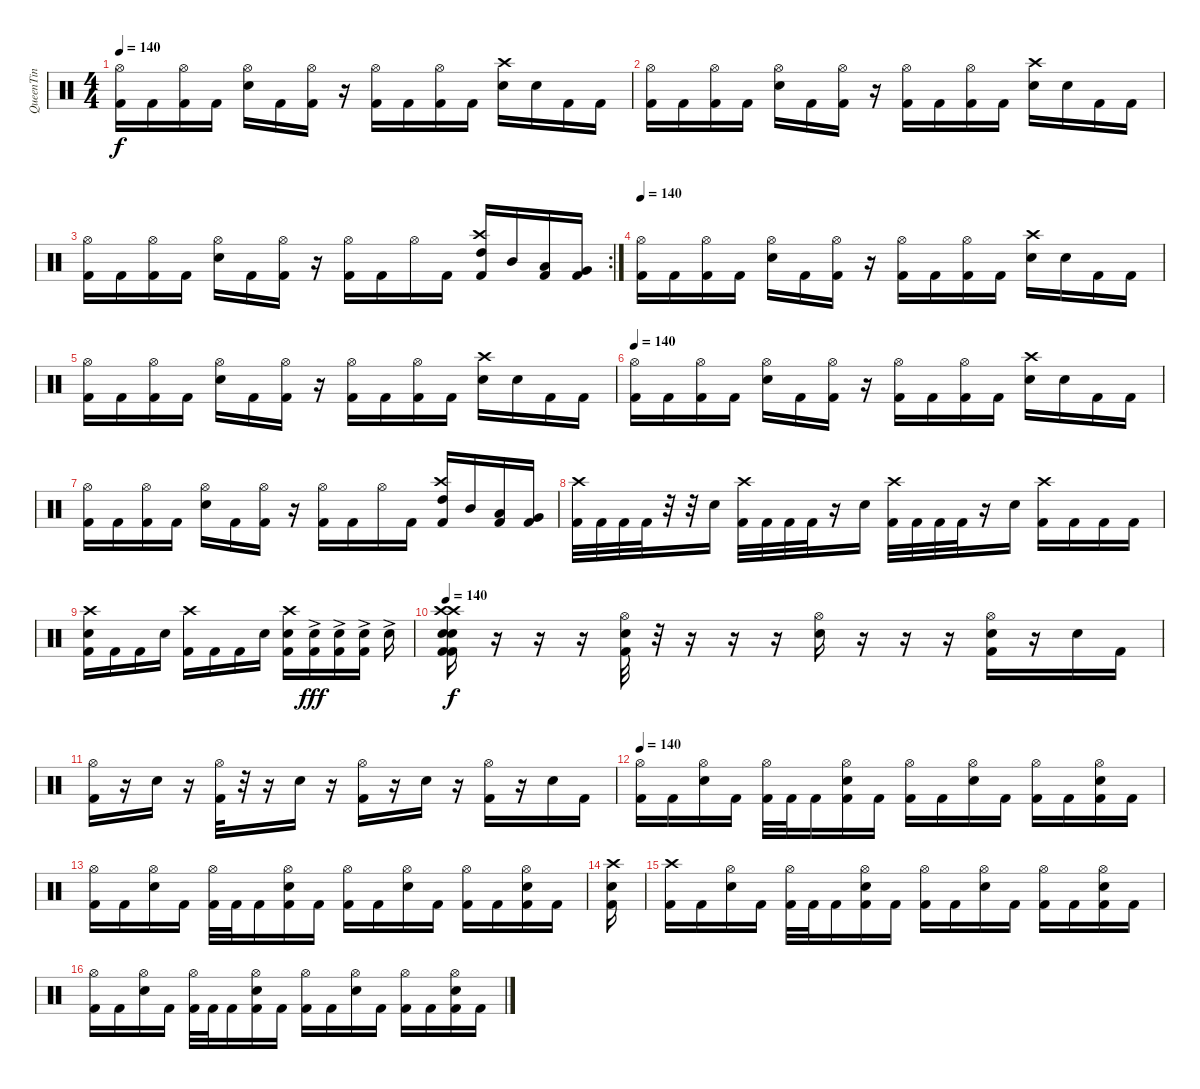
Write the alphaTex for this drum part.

\track ("QueenTin" "QueenTin") {instrument percussion}
\staff {score}
\articulation defaults
\ts (4 4)
\tempo 140
\clef neutral
\ks c
("Hi-Hat (open)" "Kick (hit) 2").16{dy f} "Kick (hit) 2".16 ("Hi-Hat (open)" "Kick (hit) 2").16 "Kick (hit) 2".16 ("Hi-Hat (open)" "Snare (hit) 2").16 "Kick (hit) 2".16 ("Hi-Hat (open)" "Kick (hit) 2").16 r.16 ("Hi-Hat (open)" "Kick (hit) 2").16 "Kick (hit) 2".16 ("Hi-Hat (open)" "Kick (hit) 2").16 "Kick (hit) 2".16 ("Crash high (hit)" "Snare (hit) 2").16 "Snare (hit) 2".16 "Kick (hit) 2".16 "Kick (hit) 2".16 |
("Hi-Hat (open)" "Kick (hit) 2").16 "Kick (hit) 2".16 ("Hi-Hat (open)" "Kick (hit) 2").16 "Kick (hit) 2".16 ("Hi-Hat (open)" "Snare (hit) 2").16 "Kick (hit) 2".16 ("Hi-Hat (open)" "Kick (hit) 2").16 r.16 ("Hi-Hat (open)" "Kick (hit) 2").16 "Kick (hit) 2".16 ("Hi-Hat (open)" "Kick (hit) 2").16 "Kick (hit) 2".16 ("Crash high (hit)" "Snare (hit) 2").16 "Snare (hit) 2".16 "Kick (hit) 2".16 "Kick (hit) 2".16 |
\rc 2
("Hi-Hat (open)" "Kick (hit) 2").16 "Kick (hit) 2".16 ("Hi-Hat (open)" "Kick (hit) 2").16 "Kick (hit) 2".16 ("Hi-Hat (open)" "Snare (hit) 2").16 "Kick (hit) 2".16 ("Hi-Hat (open)" "Kick (hit) 2").16 r.16 ("Hi-Hat (open)" "Kick (hit) 2").16 "Kick (hit) 2".16 "Hi-Hat (open)".16 "Kick (hit) 2".16 ("Crash high (hit)" "High Tom (hit)" "Kick (hit) 2").16 "Mid Tom (hit)".16 ("Low Tom (hit)" "Kick (hit) 2").16 ("Very Low Tom (hit)" "Kick (hit) 2").16 |
\tempo 140
("Hi-Hat (open)" "Kick (hit) 2").16 "Kick (hit) 2".16 ("Hi-Hat (open)" "Kick (hit) 2").16 "Kick (hit) 2".16 ("Hi-Hat (open)" "Snare (hit) 2").16 "Kick (hit) 2".16 ("Hi-Hat (open)" "Kick (hit) 2").16 r.16 ("Hi-Hat (open)" "Kick (hit) 2").16 "Kick (hit) 2".16 ("Hi-Hat (open)" "Kick (hit) 2").16 "Kick (hit) 2".16 ("Crash high (hit)" "Snare (hit) 2").16 "Snare (hit) 2".16 "Kick (hit) 2".16 "Kick (hit) 2".16 |
("Hi-Hat (open)" "Kick (hit) 2").16 "Kick (hit) 2".16 ("Hi-Hat (open)" "Kick (hit) 2").16 "Kick (hit) 2".16 ("Hi-Hat (open)" "Snare (hit) 2").16 "Kick (hit) 2".16 ("Hi-Hat (open)" "Kick (hit) 2").16 r.16 ("Hi-Hat (open)" "Kick (hit) 2").16 "Kick (hit) 2".16 ("Hi-Hat (open)" "Kick (hit) 2").16 "Kick (hit) 2".16 ("Crash high (hit)" "Snare (hit) 2").16 "Snare (hit) 2".16 "Kick (hit) 2".16 "Kick (hit) 2".16 |
\tempo 140
("Hi-Hat (open)" "Kick (hit) 2").16 "Kick (hit) 2".16 ("Hi-Hat (open)" "Kick (hit) 2").16 "Kick (hit) 2".16 ("Hi-Hat (open)" "Snare (hit) 2").16 "Kick (hit) 2".16 ("Hi-Hat (open)" "Kick (hit) 2").16 r.16 ("Hi-Hat (open)" "Kick (hit) 2").16 "Kick (hit) 2".16 ("Hi-Hat (open)" "Kick (hit) 2").16 "Kick (hit) 2".16 ("Crash high (hit)" "Snare (hit) 2").16 "Snare (hit) 2".16 "Kick (hit) 2".16 "Kick (hit) 2".16 |
("Hi-Hat (open)" "Kick (hit) 2").16 "Kick (hit) 2".16 ("Hi-Hat (open)" "Kick (hit) 2").16 "Kick (hit) 2".16 ("Hi-Hat (open)" "Snare (hit) 2").16 "Kick (hit) 2".16 ("Hi-Hat (open)" "Kick (hit) 2").16 r.16 ("Hi-Hat (open)" "Kick (hit) 2").16 "Kick (hit) 2".16 "Hi-Hat (open)".16 "Kick (hit) 2".16 ("Crash high (hit)" "High Tom (hit)" "Kick (hit) 2").16 "Mid Tom (hit)".16 ("Low Tom (hit)" "Kick (hit) 2").16 ("Very Low Tom (hit)" "Kick (hit) 2").16 |
("Crash high (hit)" "Kick (hit) 2").32 "Kick (hit) 2".32 "Kick (hit) 2".32 "Kick (hit) 2".32 r.32 r.32 "Snare (hit) 2".16 ("Crash high (hit)" "Kick (hit) 2").32 "Kick (hit) 2".32 "Kick (hit) 2".32 "Kick (hit) 2".32 r.16 "Snare (hit) 2".16 ("Crash high (hit)" "Kick (hit) 2").32 "Kick (hit) 2".32 "Kick (hit) 2".32 "Kick (hit) 2".32 r.16 "Snare (hit) 2".16 ("Crash high (hit)" "Kick (hit) 2").16 "Kick (hit) 2".16 "Kick (hit) 2".16 "Kick (hit) 2".16 |
("Crash high (hit)" "Snare (hit) 2" "Kick (hit) 2").16 "Kick (hit) 2".16 "Kick (hit) 2".16 "Snare (hit) 2".16 ("Crash high (hit)" "Kick (hit) 2").16 "Kick (hit) 2".16 "Kick (hit) 2".16 "Snare (hit) 2".16 ("Crash high (hit)" "Snare (hit) 2" "Kick (hit) 2").16 ("Snare (hit) 2"{ac} "Kick (hit) 2").16{dy fff} ("Snare (hit) 2"{ac} "Kick (hit) 2").16 ("Snare (hit) 2"{ac} "Kick (hit) 2").16 "Snare (hit) 2"{ac}.16 |
\tempo 140
("Crash high (hit)" "Crash high (hit)" "Snare (hit) 2" "Snare (hit) 2" "Kick (hit) 2" "Kick (hit) 2").16{dy f} r.16 r.16 r.16 ("Hi-Hat (open)" "Snare (hit) 2" "Kick (hit) 2").32 r.32 r.16 r.16 r.16 ("Hi-Hat (open)" "Snare (hit) 2").16 r.16 r.16 r.16 ("Hi-Hat (open)" "Snare (hit) 2" "Kick (hit) 2").16 r.16 "Snare (hit) 2".16 "Kick (hit) 2".16 |
("Hi-Hat (open)" "Kick (hit) 2").16 r.16 "Snare (hit) 2".16 r.16 ("Hi-Hat (open)" "Kick (hit) 2").32 r.32 r.16 "Snare (hit) 2".16 r.16 ("Hi-Hat (open)" "Kick (hit) 2").16 r.16 "Snare (hit) 2".16 r.16 ("Hi-Hat (open)" "Kick (hit) 2").16 r.16 "Snare (hit) 2".16 "Kick (hit) 2".16 |
\tempo 140
("Hi-Hat (open)" "Kick (hit) 2").16 "Kick (hit) 2".16 ("Hi-Hat (open)" "Snare (hit) 2").16 "Kick (hit) 2".16 ("Hi-Hat (open)" "Kick (hit) 2").32 "Kick (hit) 2".32 "Kick (hit) 2".16 ("Hi-Hat (open)" "Snare (hit) 2" "Kick (hit) 2").16 "Kick (hit) 2".16 ("Hi-Hat (open)" "Kick (hit) 2").16 "Kick (hit) 2".16 ("Hi-Hat (open)" "Snare (hit) 2").16 "Kick (hit) 2".16 ("Hi-Hat (open)" "Kick (hit) 2").16 "Kick (hit) 2".16 ("Hi-Hat (open)" "Snare (hit) 2" "Kick (hit) 2").16 "Kick (hit) 2".16 |
("Hi-Hat (open)" "Kick (hit) 2").16 "Kick (hit) 2".16 ("Hi-Hat (open)" "Snare (hit) 2").16 "Kick (hit) 2".16 ("Hi-Hat (open)" "Kick (hit) 2").32 "Kick (hit) 2".32 "Kick (hit) 2".16 ("Hi-Hat (open)" "Snare (hit) 2" "Kick (hit) 2").16 "Kick (hit) 2".16 ("Hi-Hat (open)" "Kick (hit) 2").16 "Kick (hit) 2".16 ("Hi-Hat (open)" "Snare (hit) 2").16 "Kick (hit) 2".16 ("Hi-Hat (open)" "Kick (hit) 2").16 "Kick (hit) 2".16 ("Hi-Hat (open)" "Snare (hit) 2" "Kick (hit) 2").16 "Kick (hit) 2".16 |
("Crash high (hit)" "Snare (hit) 2" "Kick (hit) 2").16 |
("Crash high (hit)" "Kick (hit) 2").16 "Kick (hit) 2".16 ("Hi-Hat (open)" "Snare (hit) 2").16 "Kick (hit) 2".16 ("Hi-Hat (open)" "Kick (hit) 2").32 "Kick (hit) 2".32 "Kick (hit) 2".16 ("Hi-Hat (open)" "Snare (hit) 2" "Kick (hit) 2").16 "Kick (hit) 2".16 ("Hi-Hat (open)" "Kick (hit) 2").16 "Kick (hit) 2".16 ("Hi-Hat (open)" "Snare (hit) 2").16 "Kick (hit) 2".16 ("Hi-Hat (open)" "Kick (hit) 2").16 "Kick (hit) 2".16 ("Hi-Hat (open)" "Snare (hit) 2" "Kick (hit) 2").16 "Kick (hit) 2".16 |
("Hi-Hat (open)" "Kick (hit) 2").16 "Kick (hit) 2".16 ("Hi-Hat (open)" "Snare (hit) 2").16 "Kick (hit) 2".16 ("Hi-Hat (open)" "Kick (hit) 2").32 "Kick (hit) 2".32 "Kick (hit) 2".16 ("Hi-Hat (open)" "Snare (hit) 2" "Kick (hit) 2").16 "Kick (hit) 2".16 ("Hi-Hat (open)" "Kick (hit) 2").16 "Kick (hit) 2".16 ("Hi-Hat (open)" "Snare (hit) 2").16 "Kick (hit) 2".16 ("Hi-Hat (open)" "Kick (hit) 2").16 "Kick (hit) 2".16 ("Hi-Hat (open)" "Snare (hit) 2" "Kick (hit) 2").16 "Kick (hit) 2".16
